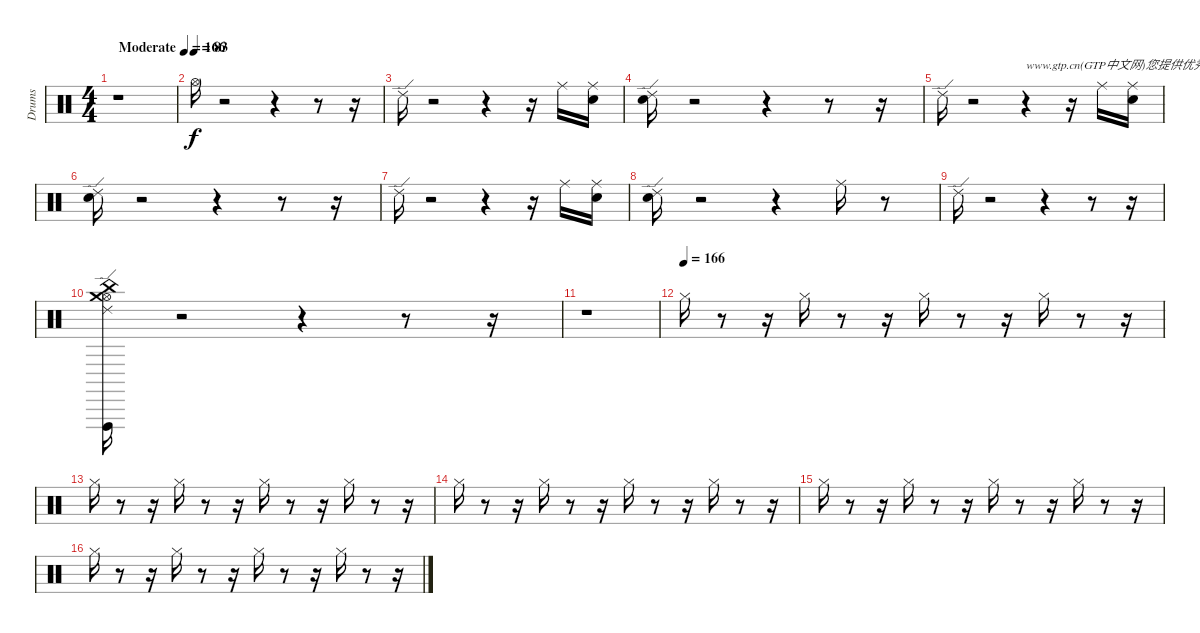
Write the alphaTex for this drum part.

\track ("Drums" "Drums") {instrument percussion}
\staff {score}
\articulation defaults
\ts (4 4)
\tempo (166 "Moderate")
\clef neutral
\ks c
r.1{dy f} |
\tempo (83)
"Hi-Hat (open)".16 r.2 r.4 r.8 r.16 |
"Ride (edge) 2".16 r.2 r.4 r.16 "Ride (middle)".16 ("Snare (hit)" "Ride (middle)").16 |
("Snare (hit)" "Ride (edge) 2").16 r.2 r.4 r.8 r.16 |
"Ride (edge) 2".16 r.2 r.4{txt "www.gtp.cn(GTP中文网)您提供优秀的GTP"} r.16 "Ride (middle)".16 ("Snare (hit)" "Ride (middle)").16 |
("Snare (hit)" "Ride (edge) 2").16 r.2 r.4 r.8 r.16 |
"Ride (edge) 2".16 r.2 r.4 r.16 "Ride (middle)".16 ("Snare (hit)" "Ride (middle)").16 |
("Snare (hit)" "Ride (edge) 2").16 r.2 r.4 "Ride (middle)".16 r.8 |
"Ride (edge) 2".16 r.2 r.4 r.8 r.16 |
("Vibraslap (hit)" "Ride (edge) 2" "Hi-Hat (open)" "Crash medium (hit)" "China (hit)").16 r.2 r.4 r.8 r.16 |
r.1 |
\tempo (166)
"Hi-Hat (closed)".16 r.8 r.16 "Hi-Hat (closed)".16 r.8 r.16 "Hi-Hat (closed)".16 r.8 r.16 "Hi-Hat (closed)".16 r.8 r.16 |
"Hi-Hat (closed)".16 r.8 r.16 "Hi-Hat (closed)".16 r.8 r.16 "Hi-Hat (closed)".16 r.8 r.16 "Hi-Hat (closed)".16 r.8 r.16 |
"Hi-Hat (closed)".16 r.8 r.16 "Hi-Hat (closed)".16 r.8 r.16 "Hi-Hat (closed)".16 r.8 r.16 "Hi-Hat (closed)".16 r.8 r.16 |
"Hi-Hat (closed)".16 r.8 r.16 "Hi-Hat (closed)".16 r.8 r.16 "Hi-Hat (closed)".16 r.8 r.16 "Hi-Hat (closed)".16 r.8 r.16 |
"Hi-Hat (closed)".16 r.8 r.16 "Hi-Hat (closed)".16 r.8 r.16 "Hi-Hat (closed)".16 r.8 r.16 "Hi-Hat (closed)".16 r.8 r.16
